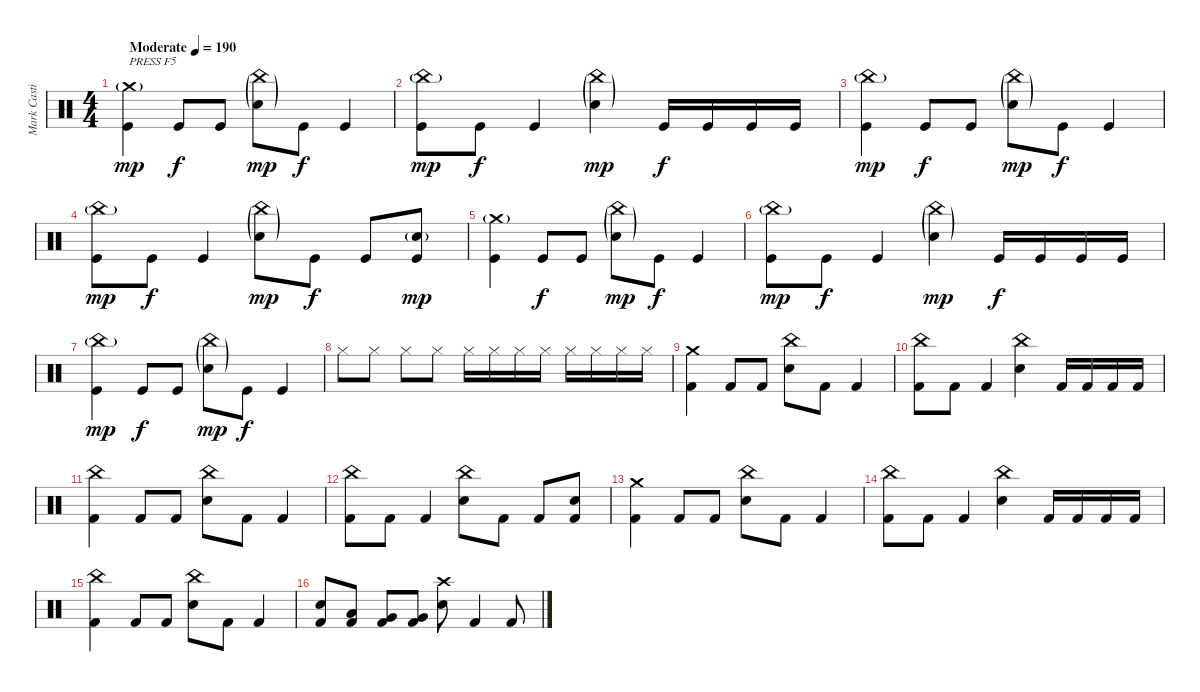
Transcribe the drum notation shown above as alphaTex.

\track ("Mark Castillo" "Mark Casti") {instrument percussion}
\staff {score}
\articulation defaults
\ts (4 4)
\tempo (190 "Moderate")
\clef neutral
\ks c
("Crash medium (hit)"{g} "Kick (hit)").4{txt "PRESS F5" dy mp} "Kick (hit)".8{dy f} "Kick (hit)".8 ("China (hit)"{g} "Electric Snare (hit)"{g}).8{dy mp} "Kick (hit)".8{dy f} "Kick (hit)".4 |
("China (hit)"{g} "Kick (hit)").8{dy mp} "Kick (hit)".8{dy f} "Kick (hit)".4 ("China (hit)"{g} "Electric Snare (hit)"{g}).4{dy mp} "Kick (hit)".16{dy f} "Kick (hit)".16 "Kick (hit)".16 "Kick (hit)".16 |
("China (hit)"{g} "Kick (hit)").4{dy mp} "Kick (hit)".8{dy f} "Kick (hit)".8 ("China (hit)"{g} "Electric Snare (hit)"{g}).8{dy mp} "Kick (hit)".8{dy f} "Kick (hit)".4 |
("China (hit)"{g} "Kick (hit)").8{dy mp} "Kick (hit)".8{dy f} "Kick (hit)".4 ("China (hit)"{g} "Electric Snare (hit)"{g}).8{dy mp} "Kick (hit)".8{dy f} "Kick (hit)".8 ("Electric Snare (hit)"{g} "Kick (hit)").8{dy mp} |
("Crash medium (hit)"{g} "Kick (hit)").4 "Kick (hit)".8{dy f} "Kick (hit)".8 ("China (hit)"{g} "Electric Snare (hit)"{g}).8{dy mp} "Kick (hit)".8{dy f} "Kick (hit)".4 |
("China (hit)"{g} "Kick (hit)").8{dy mp} "Kick (hit)".8{dy f} "Kick (hit)".4 ("China (hit)"{g} "Electric Snare (hit)"{g}).4{dy mp} "Kick (hit)".16{dy f} "Kick (hit)".16 "Kick (hit)".16 "Kick (hit)".16 |
("China (hit)"{g} "Kick (hit)").4{dy mp} "Kick (hit)".8{dy f} "Kick (hit)".8 ("China (hit)"{g} "Electric Snare (hit)"{g}).8{dy mp} "Kick (hit)".8{dy f} "Kick (hit)".4 |
"Hi-Hat (closed)".8 "Hi-Hat (closed)".8 "Hi-Hat (closed)".8 "Hi-Hat (closed)".8 "Hi-Hat (closed)".16 "Hi-Hat (closed)".16 "Hi-Hat (closed)".16 "Hi-Hat (closed)".16 "Hi-Hat (closed)".16 "Hi-Hat (closed)".16 "Hi-Hat (closed)".16 "Hi-Hat (closed)".16 |
("Crash medium (hit)" "Kick (hit) 2").4 "Kick (hit) 2".8 "Kick (hit) 2".8 ("China (hit)" "Electric Snare (hit)").8 "Kick (hit) 2".8 "Kick (hit) 2".4 |
("China (hit)" "Kick (hit) 2").8 "Kick (hit) 2".8 "Kick (hit) 2".4 ("China (hit)" "Electric Snare (hit)").4 "Kick (hit) 2".16 "Kick (hit) 2".16 "Kick (hit) 2".16 "Kick (hit) 2".16 |
("China (hit)" "Kick (hit) 2").4 "Kick (hit) 2".8 "Kick (hit) 2".8 ("China (hit)" "Electric Snare (hit)").8 "Kick (hit) 2".8 "Kick (hit) 2".4 |
("China (hit)" "Kick (hit) 2").8 "Kick (hit) 2".8 "Kick (hit) 2".4 ("China (hit)" "Electric Snare (hit)").8 "Kick (hit) 2".8 "Kick (hit) 2".8 ("Electric Snare (hit)" "Kick (hit) 2").8 |
("Crash medium (hit)" "Kick (hit) 2").4 "Kick (hit) 2".8 "Kick (hit) 2".8 ("China (hit)" "Electric Snare (hit)").8 "Kick (hit) 2".8 "Kick (hit) 2".4 |
("China (hit)" "Kick (hit) 2").8 "Kick (hit) 2".8 "Kick (hit) 2".4 ("China (hit)" "Electric Snare (hit)").4 "Kick (hit) 2".16 "Kick (hit) 2".16 "Kick (hit) 2".16 "Kick (hit) 2".16 |
("China (hit)" "Kick (hit) 2").4 "Kick (hit) 2".8 "Kick (hit) 2".8 ("China (hit)" "Electric Snare (hit)").8 "Kick (hit) 2".8 "Kick (hit) 2".4 |
("Electric Snare (hit)" "Kick (hit) 2").8 ("Low Tom (hit)" "Kick (hit) 2").8 ("Very Low Tom (hit)" "Kick (hit) 2").8 ("Very Low Tom (hit)" "Kick (hit) 2").8 ("Crash high (hit)" "Electric Snare (hit)").8 "Kick (hit) 2".4 "Kick (hit) 2".8
